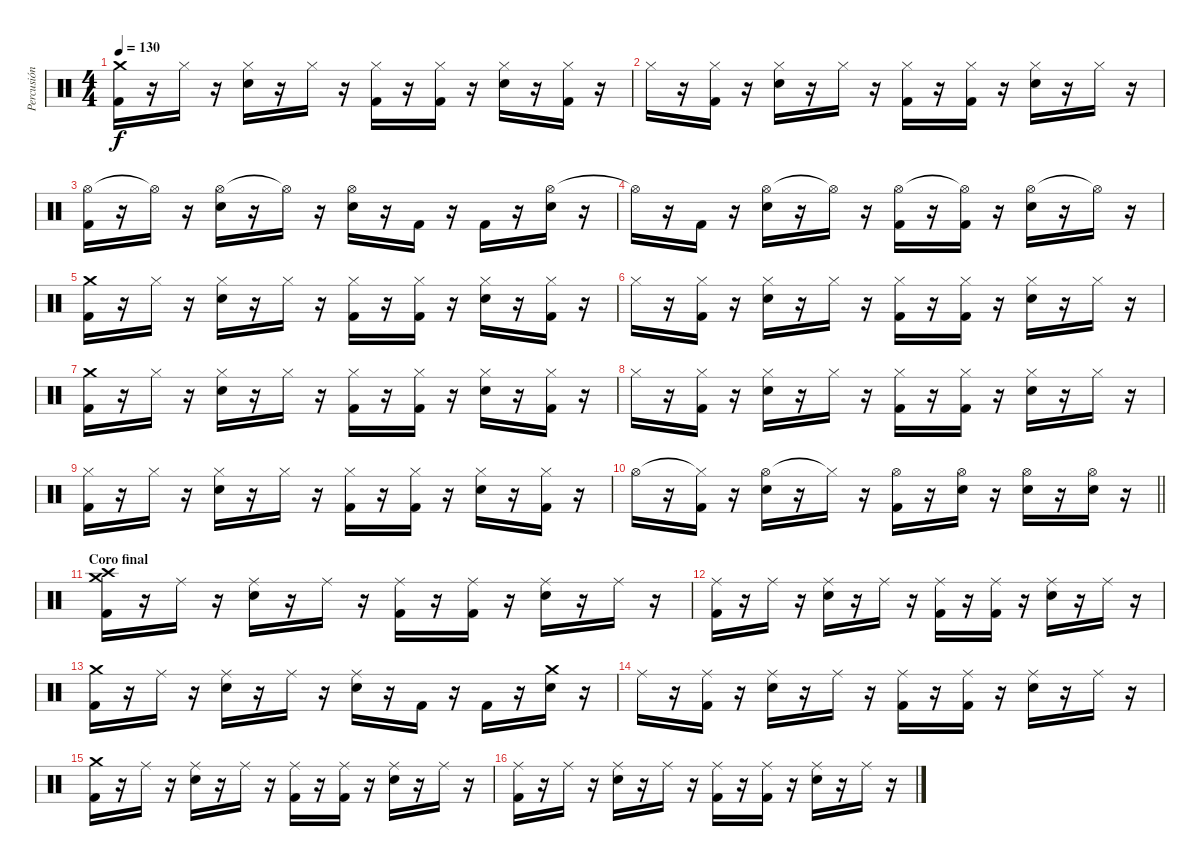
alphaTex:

\track ("Percusión" "Percusión") {instrument percussion}
\staff {score}
\articulation defaults
\ts (4 4)
\tempo 130
\clef neutral
\ks c
("Crash medium (hit)" "Kick (hit) 2").16{dy f} r.16 "Hi-Hat (closed)".16 r.16 ("Hi-Hat (closed)" "Electric Snare (hit)").16 r.16 "Hi-Hat (closed)".16 r.16 ("Hi-Hat (closed)" "Kick (hit) 2").16 r.16 ("Hi-Hat (closed)" "Kick (hit) 2").16 r.16 ("Hi-Hat (closed)" "Electric Snare (hit)").16 r.16 ("Hi-Hat (closed)" "Kick (hit) 2").16 r.16 |
"Hi-Hat (closed)".16 r.16 ("Hi-Hat (closed)" "Kick (hit) 2").16 r.16 ("Hi-Hat (closed)" "Electric Snare (hit)").16 r.16 "Hi-Hat (closed)".16 r.16 ("Hi-Hat (closed)" "Kick (hit) 2").16 r.16 ("Hi-Hat (closed)" "Kick (hit) 2").16 r.16 ("Hi-Hat (closed)" "Electric Snare (hit)").16 r.16 "Hi-Hat (closed)".16 r.16 |
("Hi-Hat (open)" "Kick (hit) 2").16 r.16 "Hi-Hat (open)"{t}.16 r.16 ("Hi-Hat (open)" "Electric Snare (hit)").16 r.16 "Hi-Hat (open)"{t}.16 r.16 ("Hi-Hat (open)" "Electric Snare (hit)").16 r.16 "Kick (hit) 2".16 r.16 "Kick (hit) 2".16 r.16 ("Hi-Hat (open)" "Electric Snare (hit)").16 r.16 |
"Hi-Hat (open)"{t}.16 r.16 "Kick (hit) 2".16 r.16 ("Hi-Hat (open)" "Electric Snare (hit)").16 r.16 "Hi-Hat (open)"{t}.16 r.16 ("Hi-Hat (open)" "Kick (hit) 2").16 r.16 ("Hi-Hat (open)"{t} "Kick (hit) 2").16 r.16 ("Hi-Hat (open)" "Electric Snare (hit)").16 r.16 "Hi-Hat (open)"{t}.16 r.16 |
("Crash medium (hit)" "Kick (hit) 2").16 r.16 "Hi-Hat (closed)".16 r.16 ("Hi-Hat (closed)" "Electric Snare (hit)").16 r.16 "Hi-Hat (closed)".16 r.16 ("Hi-Hat (closed)" "Kick (hit) 2").16 r.16 ("Hi-Hat (closed)" "Kick (hit) 2").16 r.16 ("Hi-Hat (closed)" "Electric Snare (hit)").16 r.16 ("Hi-Hat (closed)" "Kick (hit) 2").16 r.16 |
"Hi-Hat (closed)".16 r.16 ("Hi-Hat (closed)" "Kick (hit) 2").16 r.16 ("Hi-Hat (closed)" "Electric Snare (hit)").16 r.16 "Hi-Hat (closed)".16 r.16 ("Hi-Hat (closed)" "Kick (hit) 2").16 r.16 ("Hi-Hat (closed)" "Kick (hit) 2").16 r.16 ("Hi-Hat (closed)" "Electric Snare (hit)").16 r.16 "Hi-Hat (closed)".16 r.16 |
("Crash medium (hit)" "Kick (hit) 2").16 r.16 "Hi-Hat (closed)".16 r.16 ("Hi-Hat (closed)" "Electric Snare (hit)").16 r.16 "Hi-Hat (closed)".16 r.16 ("Hi-Hat (closed)" "Kick (hit) 2").16 r.16 ("Hi-Hat (closed)" "Kick (hit) 2").16 r.16 ("Hi-Hat (closed)" "Electric Snare (hit)").16 r.16 ("Hi-Hat (closed)" "Kick (hit) 2").16 r.16 |
"Hi-Hat (closed)".16 r.16 ("Hi-Hat (closed)" "Kick (hit) 2").16 r.16 ("Hi-Hat (closed)" "Electric Snare (hit)").16 r.16 "Hi-Hat (closed)".16 r.16 ("Hi-Hat (closed)" "Kick (hit) 2").16 r.16 ("Hi-Hat (closed)" "Kick (hit) 2").16 r.16 ("Hi-Hat (closed)" "Electric Snare (hit)").16 r.16 "Hi-Hat (closed)".16 r.16 |
("Hi-Hat (closed)" "Kick (hit) 2").16 r.16 "Hi-Hat (closed)".16 r.16 ("Hi-Hat (closed)" "Electric Snare (hit)").16 r.16 "Hi-Hat (closed)".16 r.16 ("Hi-Hat (closed)" "Kick (hit) 2").16 r.16 ("Hi-Hat (closed)" "Kick (hit) 2").16 r.16 ("Hi-Hat (closed)" "Electric Snare (hit)").16 r.16 ("Hi-Hat (closed)" "Kick (hit) 2").16 r.16 |
\barLineRight lightlight "Hi-Hat (open)".16
r.16 ("Hi-Hat (closed)"{t} "Kick (hit) 2").16 r.16 ("Hi-Hat (open)" "Electric Snare (hit)").16 r.16 "Hi-Hat (closed)"{t}.16 r.16 ("Hi-Hat (open)" "Kick (hit) 2").16 r.16 ("Hi-Hat (open)" "Electric Snare (hit)").16 r.16 ("Hi-Hat (open)" "Electric Snare (hit)").16 r.16 ("Hi-Hat (open)" "Electric Snare (hit)").16 r.16 |
\section ("" "Coro final")
("Crash medium (hit)" "Crash high (hit)" "Kick (hit) 2").16 r.16 "Ride (middle)".16 r.16 ("Ride (middle)" "Electric Snare (hit)").16 r.16 "Ride (middle)".16 r.16 ("Ride (middle)" "Kick (hit) 2").16 r.16 ("Ride (middle)" "Kick (hit) 2").16 r.16 ("Ride (middle)" "Electric Snare (hit)").16 r.16 "Ride (middle)".16 r.16 |
("Ride (middle)" "Kick (hit) 2").16 r.16 "Ride (middle)".16 r.16 ("Ride (middle)" "Electric Snare (hit)").16 r.16 "Ride (middle)".16 r.16 ("Ride (middle)" "Kick (hit) 2").16 r.16 ("Ride (middle)" "Kick (hit) 2").16 r.16 ("Ride (middle)" "Electric Snare (hit)").16 r.16 "Ride (middle)".16 r.16 |
("Crash medium (hit)" "Kick (hit) 2").16 r.16 "Ride (middle)".16 r.16 ("Ride (middle)" "Electric Snare (hit)").16 r.16 "Ride (middle)".16 r.16 ("Ride (middle)" "Electric Snare (hit)").16 r.16 "Kick (hit) 2".16 r.16 "Kick (hit) 2".16 r.16 ("Crash medium (hit)" "Electric Snare (hit)").16 r.16 |
"Ride (middle)".16 r.16 ("Ride (middle)" "Kick (hit) 2").16 r.16 ("Ride (middle)" "Electric Snare (hit)").16 r.16 "Ride (middle)".16 r.16 ("Ride (middle)" "Kick (hit) 2").16 r.16 ("Ride (middle)" "Kick (hit) 2").16 r.16 ("Ride (middle)" "Electric Snare (hit)").16 r.16 "Ride (middle)".16 r.16 |
("Crash medium (hit)" "Kick (hit) 2").16 r.16 "Ride (middle)".16 r.16 ("Ride (middle)" "Electric Snare (hit)").16 r.16 "Ride (middle)".16 r.16 ("Ride (middle)" "Kick (hit) 2").16 r.16 ("Ride (middle)" "Kick (hit) 2").16 r.16 ("Ride (middle)" "Electric Snare (hit)").16 r.16 "Ride (middle)".16 r.16 |
("Ride (middle)" "Kick (hit) 2").16 r.16 "Ride (middle)".16 r.16 ("Ride (middle)" "Electric Snare (hit)").16 r.16 "Ride (middle)".16 r.16 ("Ride (middle)" "Kick (hit) 2").16 r.16 ("Ride (middle)" "Kick (hit) 2").16 r.16 ("Ride (middle)" "Electric Snare (hit)").16 r.16 "Ride (middle)".16 r.16
